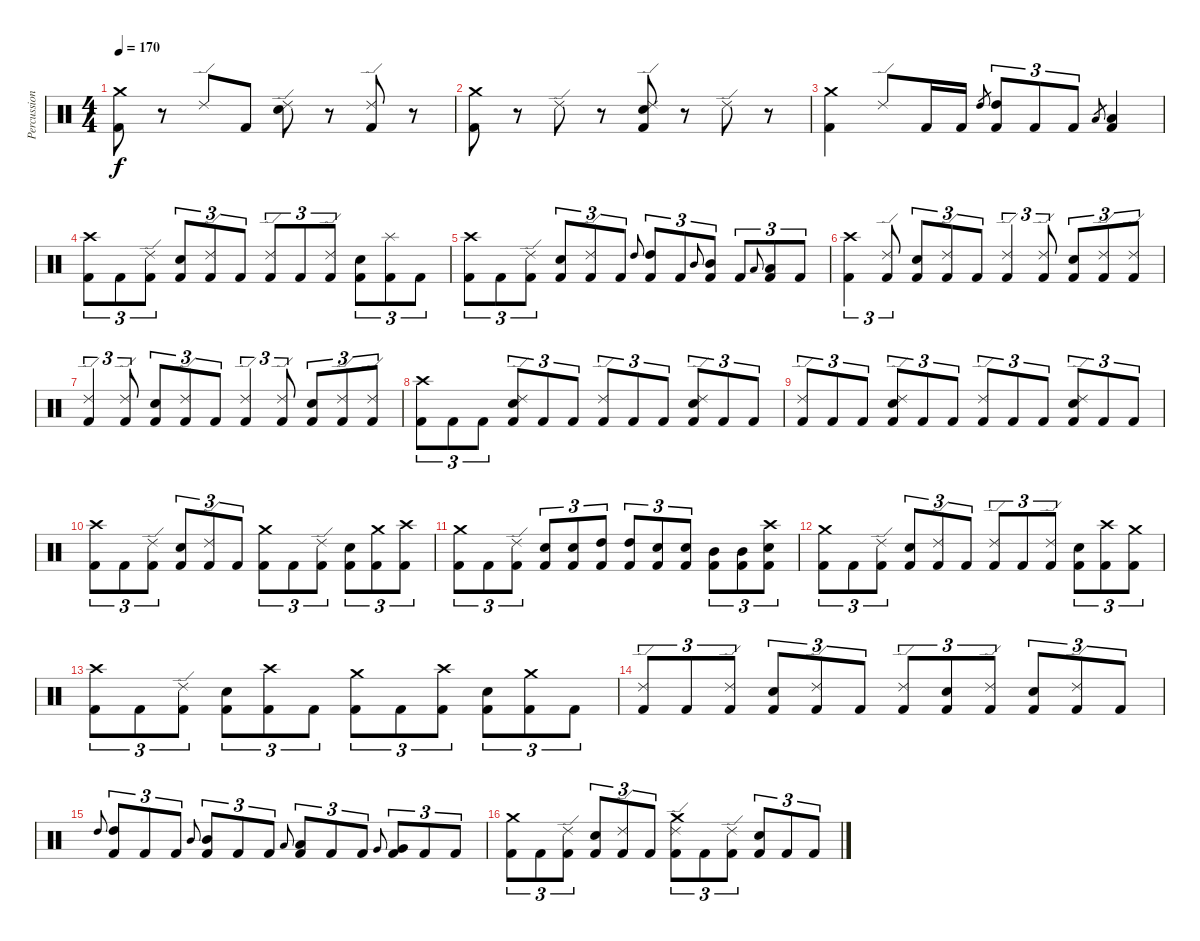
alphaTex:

\track ("Percussion" "Percussion") {instrument percussion}
\staff {score}
\articulation defaults
\ts (4 4)
\tempo 170
\clef neutral
\ks c
("Crash medium (hit)" "Kick (hit) 2").8{dy f} r.8 "Ride (edge) 2".8 "Kick (hit) 2".8 ("Ride (edge) 2" "Snare (hit) 2").8 r.8 ("Ride (edge) 2" "Kick (hit) 2").8 r.8 |
("Crash medium (hit)" "Kick (hit) 2").8 r.8 "Ride (edge) 2".8 r.8 ("Ride (edge) 2" "Snare (hit) 2" "Kick (hit) 2").8 r.8 "Ride (edge) 2".8 r.8 |
("Crash medium (hit)" "Kick (hit) 2").4 "Ride (edge) 2".8 "Kick (hit) 2".16 "Kick (hit) 2".16 "High Tom (hit)".8{gr} ("High Tom (hit)" "Kick (hit) 2").8{tu (3 2)} "Kick (hit) 2".8{tu (3 2)} "Kick (hit) 2".8{tu (3 2)} "Low Tom (hit)".8{gr} ("Low Tom (hit)" "Kick (hit) 2").4 |
("Crash high (hit)" "Kick (hit) 2").8{tu (3 2)} "Kick (hit) 2".8{tu (3 2)} ("Ride (edge) 2" "Kick (hit) 2").8{tu (3 2)} ("Snare (hit) 2" "Kick (hit) 2").8{tu (3 2)} ("Ride (edge) 2" "Kick (hit) 2").8{tu (3 2)} "Kick (hit) 2".8{tu (3 2)} ("Ride (edge) 2" "Kick (hit) 2").8{tu (3 2)} "Kick (hit) 2".8{tu (3 2)} ("Ride (edge) 2" "Kick (hit) 2").8{tu (3 2)} ("Snare (hit) 2" "Kick (hit) 2").8{tu (3 2)} ("Splash (hit)" "Kick (hit) 2").8{tu (3 2)} "Kick (hit) 2".8{tu (3 2)} |
("Crash high (hit)" "Kick (hit) 2").8{tu (3 2)} "Kick (hit) 2".8{tu (3 2)} ("Ride (edge) 2" "Kick (hit) 2").8{tu (3 2)} ("Snare (hit) 2" "Kick (hit) 2").8{tu (3 2)} ("Ride (edge) 2" "Kick (hit) 2").8{tu (3 2)} "Kick (hit) 2".8{tu (3 2)} "High Tom (hit)".8{gr onbeat} ("High Tom (hit)" "Kick (hit) 2").8{tu (3 2)} "Kick (hit) 2".8{tu (3 2)} "Mid Tom (hit)".8{gr onbeat} ("Mid Tom (hit)" "Kick (hit) 2").8{tu (3 2)} "Kick (hit) 2".8{tu (3 2)} "Low Tom (hit)".8{gr onbeat} ("Low Tom (hit)" "Kick (hit) 2").8{tu (3 2)} "Kick (hit) 2".8{tu (3 2)} |
("Crash high (hit)" "Kick (hit) 2").4{tu (3 2)} ("Ride (edge) 2" "Kick (hit) 2").8{tu (3 2)} ("Snare (hit) 2" "Kick (hit) 2").8{tu (3 2)} ("Ride (edge) 2" "Kick (hit) 2").8{tu (3 2)} "Kick (hit) 2".8{tu (3 2)} ("Ride (edge) 2" "Kick (hit) 2").4{tu (3 2)} ("Ride (edge) 2" "Kick (hit) 2").8{tu (3 2)} ("Snare (hit) 2" "Kick (hit) 2").8{tu (3 2)} ("Ride (edge) 2" "Kick (hit) 2").8{tu (3 2)} ("Ride (edge) 2" "Kick (hit) 2").8{tu (3 2)} |
("Ride (edge) 2" "Kick (hit) 2").4{tu (3 2)} ("Ride (edge) 2" "Kick (hit) 2").8{tu (3 2)} ("Snare (hit) 2" "Kick (hit) 2").8{tu (3 2)} ("Ride (edge) 2" "Kick (hit) 2").8{tu (3 2)} "Kick (hit) 2".8{tu (3 2)} ("Ride (edge) 2" "Kick (hit) 2").4{tu (3 2)} ("Ride (edge) 2" "Kick (hit) 2").8{tu (3 2)} ("Snare (hit) 2" "Kick (hit) 2").8{tu (3 2)} ("Ride (edge) 2" "Kick (hit) 2").8{tu (3 2)} ("Ride (edge) 2" "Kick (hit) 2").8{tu (3 2)} |
("Crash high (hit)" "Kick (hit) 2").8{tu (3 2)} "Kick (hit) 2".8{tu (3 2)} "Kick (hit) 2".8{tu (3 2)} ("Ride (edge) 2" "Snare (hit) 2" "Kick (hit) 2").8{tu (3 2)} "Kick (hit) 2".8{tu (3 2)} "Kick (hit) 2".8{tu (3 2)} ("Ride (edge) 2" "Kick (hit) 2").8{tu (3 2)} "Kick (hit) 2".8{tu (3 2)} "Kick (hit) 2".8{tu (3 2)} ("Ride (edge) 2" "Snare (hit) 2" "Kick (hit) 2").8{tu (3 2)} "Kick (hit) 2".8{tu (3 2)} "Kick (hit) 2".8{tu (3 2)} |
("Ride (edge) 2" "Kick (hit) 2").8{tu (3 2)} "Kick (hit) 2".8{tu (3 2)} "Kick (hit) 2".8{tu (3 2)} ("Ride (edge) 2" "Snare (hit) 2" "Kick (hit) 2").8{tu (3 2)} "Kick (hit) 2".8{tu (3 2)} "Kick (hit) 2".8{tu (3 2)} ("Ride (edge) 2" "Kick (hit) 2").8{tu (3 2)} "Kick (hit) 2".8{tu (3 2)} "Kick (hit) 2".8{tu (3 2)} ("Ride (edge) 2" "Snare (hit) 2" "Kick (hit) 2").8{tu (3 2)} "Kick (hit) 2".8{tu (3 2)} "Kick (hit) 2".8{tu (3 2)} |
("Crash high (hit)" "Kick (hit) 2").8{tu (3 2)} "Kick (hit) 2".8{tu (3 2)} ("Ride (edge) 2" "Kick (hit) 2").8{tu (3 2)} ("Snare (hit) 2" "Kick (hit) 2").8{tu (3 2)} ("Ride (edge) 2" "Kick (hit) 2").8{tu (3 2)} "Kick (hit) 2".8{tu (3 2)} ("Crash medium (hit)" "Kick (hit) 2").8{tu (3 2)} "Kick (hit) 2".8{tu (3 2)} ("Ride (edge) 2" "Kick (hit) 2").8{tu (3 2)} ("Snare (hit) 2" "Kick (hit) 2").8{tu (3 2)} ("Crash medium (hit)" "Kick (hit) 2").8{tu (3 2)} ("Crash high (hit)" "Kick (hit) 2").8{tu (3 2)} |
("Crash medium (hit)" "Kick (hit) 2").8{tu (3 2)} "Kick (hit) 2".8{tu (3 2)} ("Ride (edge) 2" "Kick (hit) 2").8{tu (3 2)} ("Snare (hit) 2" "Kick (hit) 2").8{tu (3 2)} ("Snare (hit) 2" "Kick (hit) 2").8{tu (3 2)} ("High Tom (hit)" "Kick (hit) 2").8{tu (3 2)} ("High Tom (hit)" "Kick (hit) 2").8{tu (3 2)} ("Snare (hit) 2" "Kick (hit) 2").8{tu (3 2)} ("Snare (hit) 2" "Kick (hit) 2").8{tu (3 2)} ("Mid Tom (hit)" "Kick (hit) 2").8{tu (3 2)} ("Mid Tom (hit)" "Kick (hit) 2").8{tu (3 2)} ("Crash high (hit)" "Snare (hit) 2" "Kick (hit) 2").8{tu (3 2)} |
("Crash medium (hit)" "Kick (hit) 2").8{tu (3 2)} "Kick (hit) 2".8{tu (3 2)} ("Ride (edge) 2" "Kick (hit) 2").8{tu (3 2)} ("Snare (hit) 2" "Kick (hit) 2").8{tu (3 2)} ("Ride (edge) 2" "Kick (hit) 2").8{tu (3 2)} "Kick (hit) 2".8{tu (3 2)} ("Ride (edge) 2" "Kick (hit) 2").8{tu (3 2)} "Kick (hit) 2".8{tu (3 2)} ("Ride (edge) 2" "Kick (hit) 2").8{tu (3 2)} ("Snare (hit) 2" "Kick (hit) 2").8{tu (3 2)} ("Crash high (hit)" "Kick (hit) 2").8{tu (3 2)} ("Crash medium (hit)" "Kick (hit) 2").8{tu (3 2)} |
("Crash high (hit)" "Kick (hit) 2").8{tu (3 2)} "Kick (hit) 2".8{tu (3 2)} ("Ride (edge) 2" "Kick (hit) 2").8{tu (3 2)} ("Snare (hit) 2" "Kick (hit) 2").8{tu (3 2)} ("Crash high (hit)" "Kick (hit) 2").8{tu (3 2)} "Kick (hit) 2".8{tu (3 2)} ("Crash medium (hit)" "Kick (hit) 2").8{tu (3 2)} "Kick (hit) 2".8{tu (3 2)} ("Crash high (hit)" "Kick (hit) 2").8{tu (3 2)} ("Snare (hit) 2" "Kick (hit) 2").8{tu (3 2)} ("Crash medium (hit)" "Kick (hit) 2").8{tu (3 2)} "Kick (hit) 2".8{tu (3 2)} |
("Ride (edge) 2" "Kick (hit) 2").8{tu (3 2)} "Kick (hit) 2".8{tu (3 2)} ("Ride (edge) 2" "Kick (hit) 2").8{tu (3 2)} ("Snare (hit) 2" "Kick (hit) 2").8{tu (3 2)} ("Ride (edge) 2" "Kick (hit) 2").8{tu (3 2)} "Kick (hit) 2".8{tu (3 2)} ("Ride (edge) 2" "Kick (hit) 2").8{tu (3 2)} ("Snare (hit) 2" "Kick (hit) 2").8{tu (3 2)} ("Ride (edge) 2" "Kick (hit) 2").8{tu (3 2)} ("Snare (hit) 2" "Kick (hit) 2").8{tu (3 2)} ("Ride (edge) 2" "Kick (hit) 2").8{tu (3 2)} "Kick (hit) 2".8{tu (3 2)} |
"High Tom (hit)".8{gr onbeat} ("High Tom (hit)" "Kick (hit) 2").8{tu (3 2)} "Kick (hit) 2".8{tu (3 2)} "Kick (hit) 2".8{tu (3 2)} "Mid Tom (hit)".8{gr onbeat} ("Mid Tom (hit)" "Kick (hit) 2").8{tu (3 2)} "Kick (hit) 2".8{tu (3 2)} "Kick (hit) 2".8{tu (3 2)} "Low Tom (hit)".8{gr onbeat} ("Low Tom (hit)" "Kick (hit) 2").8{tu (3 2)} "Kick (hit) 2".8{tu (3 2)} "Kick (hit) 2".8{tu (3 2)} "Very Low Tom (hit)".8{gr onbeat} ("Very Low Tom (hit)" "Kick (hit) 2").8{tu (3 2)} "Kick (hit) 2".8{tu (3 2)} "Kick (hit) 2".8{tu (3 2)} |
("Crash medium (hit)" "Kick (hit) 2").8{tu (3 2)} "Kick (hit) 2".8{tu (3 2)} ("Ride (edge) 2" "Kick (hit) 2").8{tu (3 2)} ("Snare (hit) 2" "Kick (hit) 2").8{tu (3 2)} ("Ride (edge) 2" "Kick (hit) 2").8{tu (3 2)} "Kick (hit) 2".8{tu (3 2)} ("Crash medium (hit)" "Ride (edge) 2" "Kick (hit) 2").8{tu (3 2)} "Kick (hit) 2".8{tu (3 2)} ("Ride (edge) 2" "Kick (hit) 2").8{tu (3 2)} ("Snare (hit) 2" "Kick (hit) 2").8{tu (3 2)} "Kick (hit) 2".8{tu (3 2)} "Kick (hit) 2".8{tu (3 2)}
